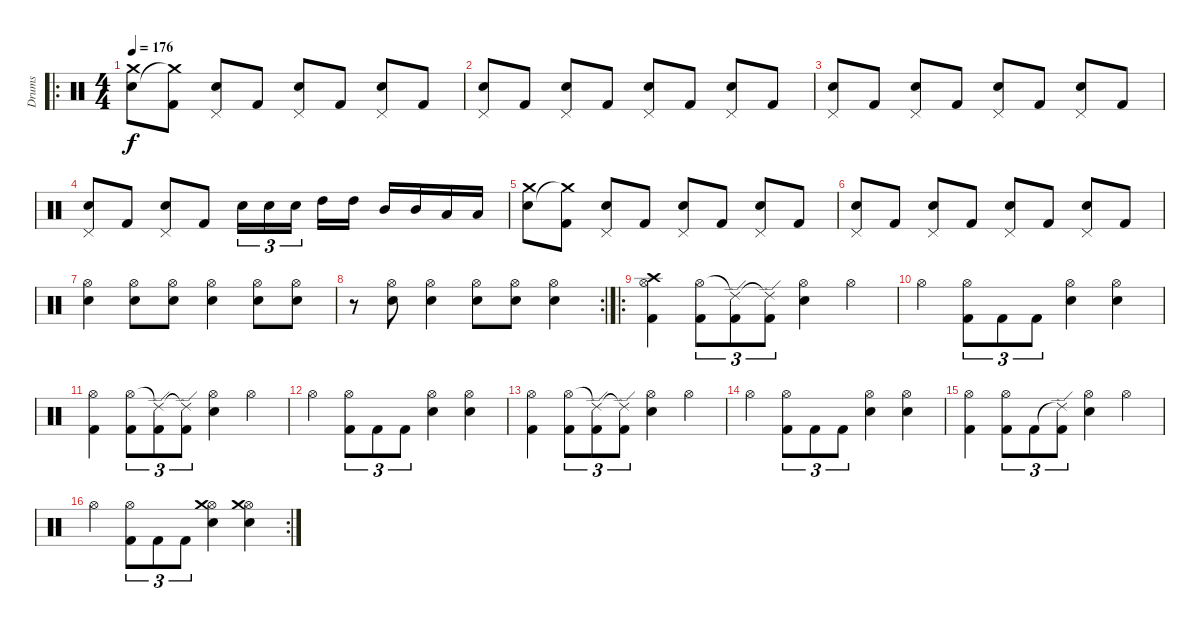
\track ("Drums" "Drums") {instrument percussion}
\staff {score}
\articulation defaults
\ro
\ts (4 4)
\tempo 176
\clef neutral
\ks c
("Crash medium (hit)" "Snare (hit) 2").8{dy f} ("Kick (hit) 2" "Crash medium (hit)"{t}).8 ("Pedal Hi-Hat (hit)" "Snare (hit) 2").8 "Kick (hit) 2".8 ("Pedal Hi-Hat (hit)" "Snare (hit) 2").8 "Kick (hit) 2".8 ("Pedal Hi-Hat (hit)" "Snare (hit) 2").8 "Kick (hit) 2".8 |
("Pedal Hi-Hat (hit)" "Snare (hit) 2").8 "Kick (hit) 2".8 ("Pedal Hi-Hat (hit)" "Snare (hit) 2").8 "Kick (hit) 2".8 ("Pedal Hi-Hat (hit)" "Snare (hit) 2").8 "Kick (hit) 2".8 ("Pedal Hi-Hat (hit)" "Snare (hit) 2").8 "Kick (hit) 2".8 |
("Pedal Hi-Hat (hit)" "Snare (hit) 2").8 "Kick (hit) 2".8 ("Pedal Hi-Hat (hit)" "Snare (hit) 2").8 "Kick (hit) 2".8 ("Pedal Hi-Hat (hit)" "Snare (hit) 2").8 "Kick (hit) 2".8 ("Pedal Hi-Hat (hit)" "Snare (hit) 2").8 "Kick (hit) 2".8 |
("Pedal Hi-Hat (hit)" "Snare (hit) 2").8 "Kick (hit) 2".8 ("Pedal Hi-Hat (hit)" "Snare (hit) 2").8 "Kick (hit) 2".8 "Electric Snare (hit)".16{tu (3 2)} "Electric Snare (hit)".16{tu (3 2)} "Electric Snare (hit)".16{tu (3 2) beam splitsecondary} "High Tom (hit)".16 "High Tom (hit)".16 "Mid Tom (hit)".16 "Mid Tom (hit)".16 "Low Tom (hit)".16 "Low Tom (hit)".16 |
("Crash medium (hit)" "Snare (hit) 2").8 ("Kick (hit) 2" "Crash medium (hit)"{t}).8 ("Pedal Hi-Hat (hit)" "Snare (hit) 2").8 "Kick (hit) 2".8 ("Pedal Hi-Hat (hit)" "Snare (hit) 2").8 "Kick (hit) 2".8 ("Pedal Hi-Hat (hit)" "Snare (hit) 2").8 "Kick (hit) 2".8 |
("Pedal Hi-Hat (hit)" "Snare (hit) 2").8 "Kick (hit) 2".8 ("Pedal Hi-Hat (hit)" "Snare (hit) 2").8 "Kick (hit) 2".8 ("Pedal Hi-Hat (hit)" "Snare (hit) 2").8 "Kick (hit) 2".8 ("Pedal Hi-Hat (hit)" "Snare (hit) 2").8 "Kick (hit) 2".8 |
("Snare (hit) 2" "Hi-Hat (open)").4 ("Snare (hit) 2" "Hi-Hat (open)").8 ("Snare (hit) 2" "Hi-Hat (open)").8 ("Snare (hit) 2" "Hi-Hat (open)").4 ("Snare (hit) 2" "Hi-Hat (open)").8 ("Snare (hit) 2" "Hi-Hat (open)").8 |
\rc 2
r.8 ("Snare (hit) 2" "Hi-Hat (open)").8 ("Snare (hit) 2" "Hi-Hat (open)").4 ("Snare (hit) 2" "Hi-Hat (open)").8 ("Snare (hit) 2" "Hi-Hat (open)").8 ("Snare (hit) 2" "Hi-Hat (open)").4 |
\ro
("Hi-Hat (open)" "Kick (hit) 2" "Crash high (hit)").4 ("Hi-Hat (open)" "Kick (hit) 2").8{tu (3 2)} ("Ride (edge) 2"{t} "Kick (hit) 2").8{tu (3 2)} ("Ride (edge) 2"{t} "Kick (hit) 2").8{tu (3 2)} ("Hi-Hat (open)" "Snare (hit) 2").4 "Hi-Hat (open)".4 |
"Hi-Hat (open)".4 ("Hi-Hat (open)" "Kick (hit) 2").8{tu (3 2)} "Kick (hit) 2".8{tu (3 2)} "Kick (hit) 2".8{tu (3 2)} ("Hi-Hat (open)" "Snare (hit) 2").4 ("Hi-Hat (open)" "Snare (hit) 2").4 |
("Hi-Hat (open)" "Kick (hit) 2").4 ("Hi-Hat (open)" "Kick (hit) 2").8{tu (3 2)} ("Ride (edge) 2"{t} "Kick (hit) 2").8{tu (3 2)} ("Ride (edge) 2"{t} "Kick (hit) 2").8{tu (3 2)} ("Hi-Hat (open)" "Snare (hit) 2").4 "Hi-Hat (open)".4 |
"Hi-Hat (open)".4 ("Hi-Hat (open)" "Kick (hit) 2").8{tu (3 2)} "Kick (hit) 2".8{tu (3 2)} "Kick (hit) 2".8{tu (3 2)} ("Hi-Hat (open)" "Snare (hit) 2").4 ("Hi-Hat (open)" "Snare (hit) 2").4 |
("Hi-Hat (open)" "Kick (hit) 2").4 ("Hi-Hat (open)" "Kick (hit) 2").8{tu (3 2)} ("Ride (edge) 2"{t} "Kick (hit) 2").8{tu (3 2)} ("Ride (edge) 2"{t} "Kick (hit) 2").8{tu (3 2)} ("Hi-Hat (open)" "Snare (hit) 2").4 "Hi-Hat (open)".4 |
"Hi-Hat (open)".4 ("Hi-Hat (open)" "Kick (hit) 2").8{tu (3 2)} "Kick (hit) 2".8{tu (3 2)} "Kick (hit) 2".8{tu (3 2)} ("Hi-Hat (open)" "Snare (hit) 2").4 ("Hi-Hat (open)" "Snare (hit) 2").4 |
("Hi-Hat (open)" "Kick (hit) 2").4 ("Hi-Hat (open)" "Kick (hit) 2").8{tu (3 2)} "Kick (hit) 2".8{tu (3 2)} ("Ride (edge) 2"{t} "Kick (hit) 2").8{tu (3 2)} ("Hi-Hat (open)" "Snare (hit) 2").4 "Hi-Hat (open)".4 |
\rc 2 "Hi-Hat (open)".4
("Hi-Hat (open)" "Kick (hit) 2").8{tu (3 2)} "Kick (hit) 2".8{tu (3 2)} "Kick (hit) 2".8{tu (3 2)} ("Hi-Hat (open)" "Snare (hit) 2" "Crash medium (hit)").4 ("Hi-Hat (open)" "Snare (hit) 2" "Crash medium (hit)").4
